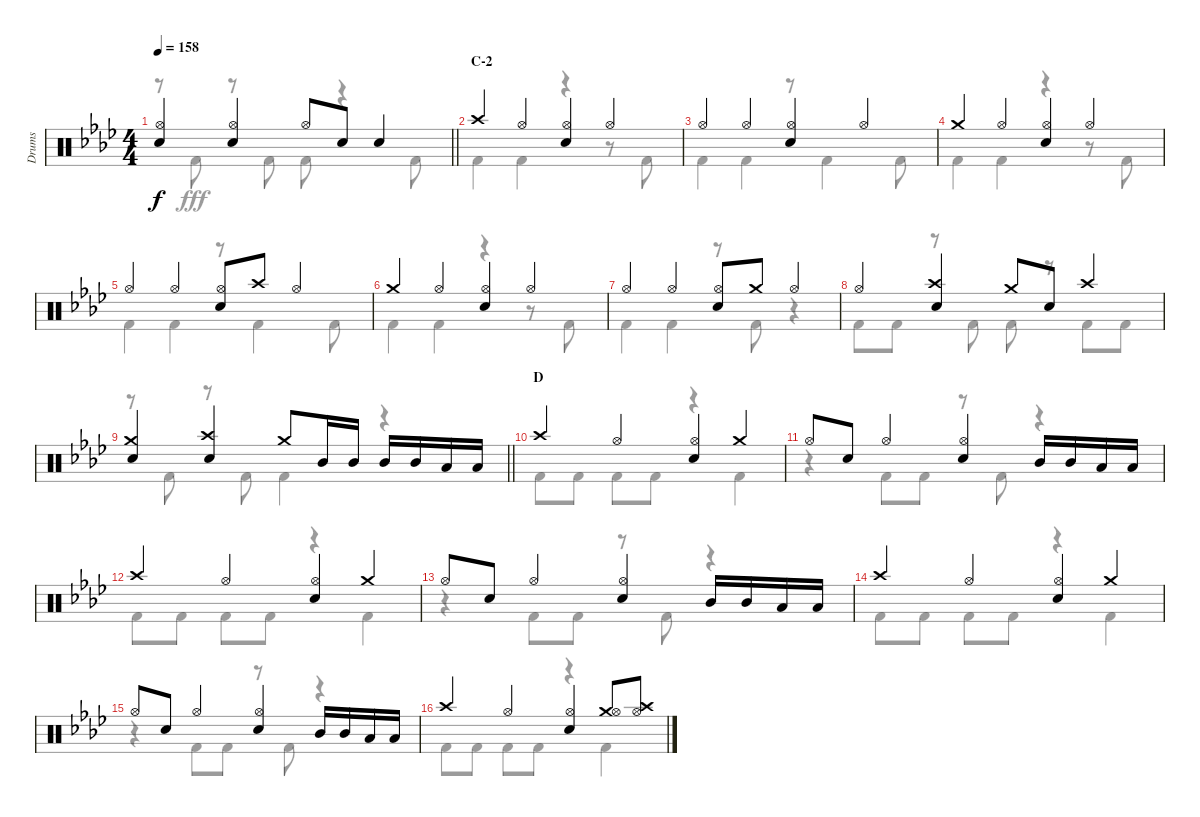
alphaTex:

\track ("Drums" "Drums") {instrument percussion}
\staff {score}
\articulation defaults
\voice
\ts (4 4)
\tempo 158
\clef neutral
\barLineRight lightlight
\ks ab
("Hi-Hat (open)" "Snare (hit) 2").4{dy f} ("Hi-Hat (open)" "Snare (hit) 2").4 "Hi-Hat (open)".8 "Snare (hit) 2".8 "Snare (hit) 2".4 |
\section ("" "C-2")
"Crash high (hit)".4 "Hi-Hat (open)".4 ("Hi-Hat (open)" "Snare (hit) 2").4 "Hi-Hat (open)".4 |
"Hi-Hat (open)".4 "Hi-Hat (open)".4 ("Hi-Hat (open)" "Snare (hit) 2").4 "Hi-Hat (open)".4 |
"Crash medium (hit)".4 "Hi-Hat (open)".4 ("Hi-Hat (open)" "Snare (hit) 2").4 "Hi-Hat (open)".4 |
"Hi-Hat (open)".4 "Hi-Hat (open)".4 ("Hi-Hat (open)" "Snare (hit) 2").8 "Crash high (hit)".8 "Hi-Hat (open)".4 |
"Crash medium (hit)".4 "Hi-Hat (open)".4 ("Hi-Hat (open)" "Snare (hit) 2").4 "Hi-Hat (open)".4 |
"Hi-Hat (open)".4 "Hi-Hat (open)".4 ("Hi-Hat (open)" "Snare (hit) 2").8 "Crash medium (hit)".8 "Hi-Hat (open)".4 |
"Hi-Hat (open)".4 ("Crash high (hit)" "Snare (hit) 2").4 "Crash medium (hit)".8 "Snare (hit) 2".8 "Crash high (hit)".4 |
\barLineRight lightlight
("Crash medium (hit)" "Snare (hit) 2").4 ("Crash high (hit)" "Snare (hit) 2").4 "Crash medium (hit)".8 "Mid Tom (hit)".16 "Mid Tom (hit)".16 "Mid Tom (hit)".16 "Mid Tom (hit)".16 "Low Tom (hit)".16 "Low Tom (hit)".16 |
\section ("" "D")
"Crash high (hit)".4 "Hi-Hat (open)".4 ("Hi-Hat (open)" "Snare (hit) 2").4 "Crash medium (hit)".4 |
"Hi-Hat (open)".8 "Snare (hit) 2".8 "Hi-Hat (open)".4 ("Hi-Hat (open)" "Snare (hit) 2").4 "Mid Tom (hit)".16 "Mid Tom (hit)".16 "Low Tom (hit)".16 "Low Tom (hit)".16 |
"Crash high (hit)".4 "Hi-Hat (open)".4 ("Hi-Hat (open)" "Snare (hit) 2").4 "Crash medium (hit)".4 |
"Hi-Hat (open)".8 "Snare (hit) 2".8 "Hi-Hat (open)".4 ("Hi-Hat (open)" "Snare (hit) 2").4 "Mid Tom (hit)".16 "Mid Tom (hit)".16 "Low Tom (hit)".16 "Low Tom (hit)".16 |
"Crash high (hit)".4 "Hi-Hat (open)".4 ("Hi-Hat (open)" "Snare (hit) 2").4 "Crash medium (hit)".4 |
"Hi-Hat (open)".8 "Snare (hit) 2".8 "Hi-Hat (open)".4 ("Hi-Hat (open)" "Snare (hit) 2").4 "Mid Tom (hit)".16 "Mid Tom (hit)".16 "Low Tom (hit)".16 "Low Tom (hit)".16 |
"Crash high (hit)".4 "Hi-Hat (open)".4 ("Hi-Hat (open)" "Snare (hit) 2").4 ("Crash medium (hit)" "Hi-Hat (open)").8 ("Crash high (hit)" "Hi-Hat (open)").8
\voice
\clef neutral
\ottava regular
\simile none
\barLineRight lightlight
\ks ab
r.8{dy fff} "Kick (hit) 2".8 r.8 "Kick (hit) 2".8 "Kick (hit) 2".8 r.4 "Kick (hit) 2".8 |
"Kick (hit) 2".4 "Kick (hit) 2".4 r.4 r.8 "Kick (hit) 2".8 |
"Kick (hit) 2".4 "Kick (hit) 2".4 r.8 "Kick (hit) 2".4 "Kick (hit) 2".8 |
"Kick (hit) 2".4 "Kick (hit) 2".4 r.4 r.8 "Kick (hit) 2".8 |
"Kick (hit) 2".4 "Kick (hit) 2".4 r.8 "Kick (hit) 2".4 "Kick (hit) 2".8 |
"Kick (hit) 2".4 "Kick (hit) 2".4 r.4 r.8 "Kick (hit) 2".8 |
"Kick (hit) 2".4 "Kick (hit) 2".4 r.8 "Kick (hit) 2".8 r.4 |
"Kick (hit) 2".8 "Kick (hit) 2".8 r.8 "Kick (hit) 2".8 "Kick (hit) 2".8 r.8 "Kick (hit) 2".8 "Kick (hit) 2".8 |
\barLineRight lightlight
r.8 "Kick (hit) 2".8 r.8 "Kick (hit) 2".8 "Kick (hit) 2".4 r.4 |
"Kick (hit) 2".8 "Kick (hit) 2".8 "Kick (hit) 2".8 "Kick (hit) 2".8 r.4 "Kick (hit) 2".4 |
r.4 "Kick (hit) 2".8 "Kick (hit) 2".8 r.8 "Kick (hit) 2".8 r.4 |
"Kick (hit) 2".8 "Kick (hit) 2".8 "Kick (hit) 2".8 "Kick (hit) 2".8 r.4 "Kick (hit) 2".4 |
r.4 "Kick (hit) 2".8 "Kick (hit) 2".8 r.8 "Kick (hit) 2".8 r.4 |
"Kick (hit) 2".8 "Kick (hit) 2".8 "Kick (hit) 2".8 "Kick (hit) 2".8 r.4 "Kick (hit) 2".4 |
r.4 "Kick (hit) 2".8 "Kick (hit) 2".8 r.8 "Kick (hit) 2".8 r.4 |
"Kick (hit) 2".8 "Kick (hit) 2".8 "Kick (hit) 2".8 "Kick (hit) 2".8 r.4 "Kick (hit) 2".4
